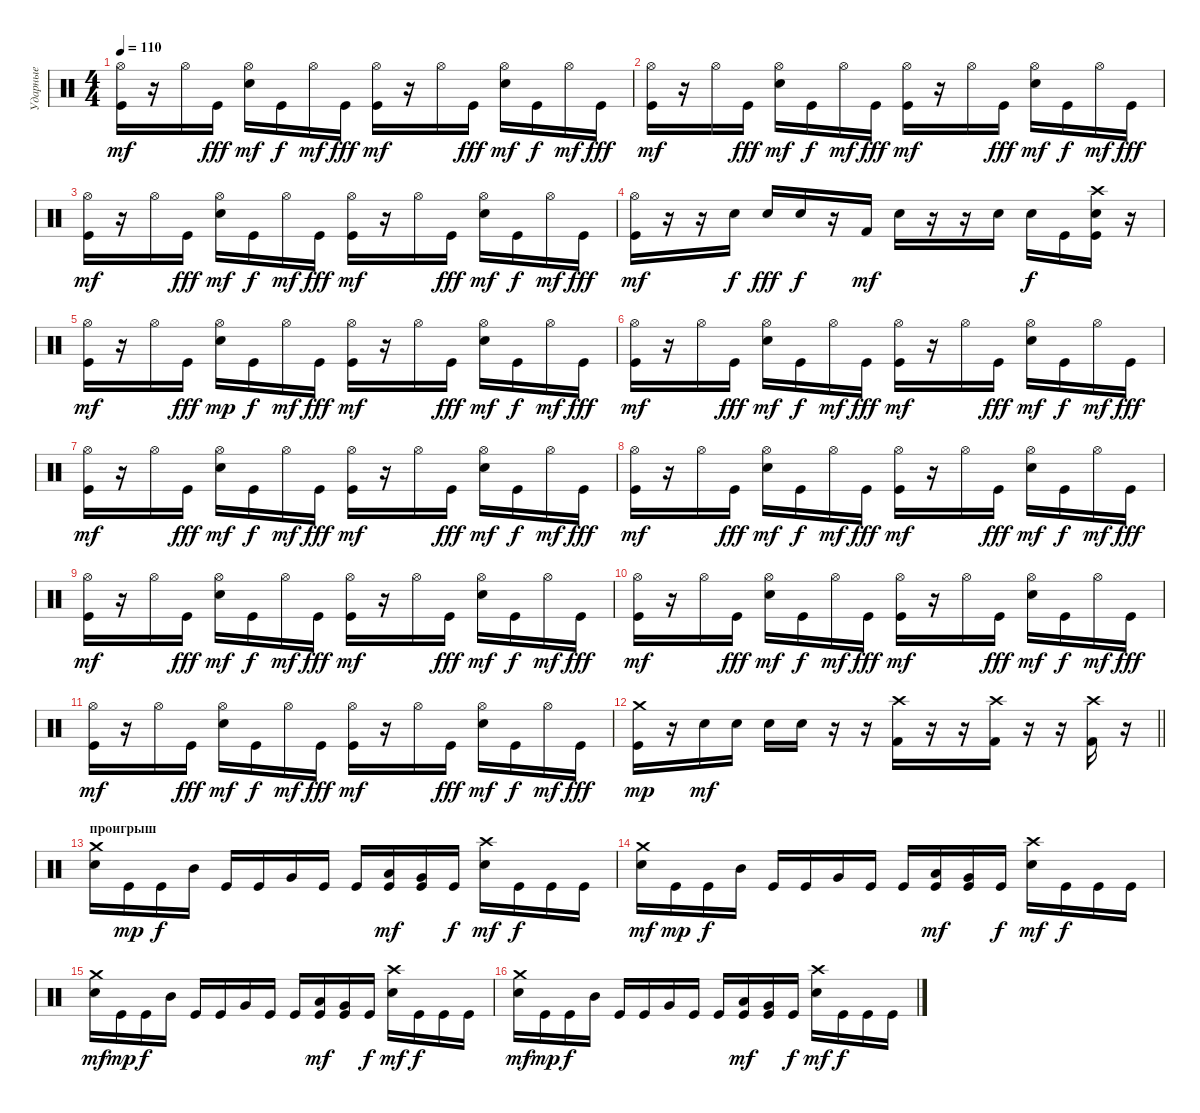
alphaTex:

\track ("Ударные" "Ударные") {instrument percussion}
\staff {score}
\articulation defaults
\ts (4 4)
\tempo 110
\clef neutral
\ks c
("Kick (hit)" "Hi-Hat (open)").16{dy mf} r.16 "Hi-Hat (open)".16 "Kick (hit)".16{dy fff} ("Electric Snare (hit)" "Hi-Hat (open)").16{dy mf} "Kick (hit)".16{dy f} "Hi-Hat (open)".16{dy mf} "Kick (hit)".16{dy fff} ("Kick (hit)" "Hi-Hat (open)").16{dy mf} r.16 "Hi-Hat (open)".16 "Kick (hit)".16{dy fff} ("Electric Snare (hit)" "Hi-Hat (open)").16{dy mf} "Kick (hit)".16{dy f} "Hi-Hat (open)".16{dy mf} "Kick (hit)".16{dy fff} |
("Kick (hit)" "Hi-Hat (open)").16{dy mf} r.16 "Hi-Hat (open)".16 "Kick (hit)".16{dy fff} ("Electric Snare (hit)" "Hi-Hat (open)").16{dy mf} "Kick (hit)".16{dy f} "Hi-Hat (open)".16{dy mf} "Kick (hit)".16{dy fff} ("Kick (hit)" "Hi-Hat (open)").16{dy mf} r.16 "Hi-Hat (open)".16 "Kick (hit)".16{dy fff} ("Electric Snare (hit)" "Hi-Hat (open)").16{dy mf} "Kick (hit)".16{dy f} "Hi-Hat (open)".16{dy mf} "Kick (hit)".16{dy fff} |
("Kick (hit)" "Hi-Hat (open)").16{dy mf} r.16 "Hi-Hat (open)".16 "Kick (hit)".16{dy fff} ("Electric Snare (hit)" "Hi-Hat (open)").16{dy mf} "Kick (hit)".16{dy f} "Hi-Hat (open)".16{dy mf} "Kick (hit)".16{dy fff} ("Kick (hit)" "Hi-Hat (open)").16{dy mf} r.16 "Hi-Hat (open)".16 "Kick (hit)".16{dy fff} ("Electric Snare (hit)" "Hi-Hat (open)").16{dy mf} "Kick (hit)".16{dy f} "Hi-Hat (open)".16{dy mf} "Kick (hit)".16{dy fff} |
("Kick (hit)" "Hi-Hat (open)").16{dy mf} r.16 r.16 "Electric Snare (hit)".16{dy f} "Electric Snare (hit)".16{dy fff} "Electric Snare (hit)".16{dy f} r.16 "Kick (hit) 2".16{dy mf} "Electric Snare (hit)".16 r.16 r.16 "Electric Snare (hit)".16 "Electric Snare (hit)".16{dy f} "Kick (hit)".16 ("Kick (hit)" "Electric Snare (hit)" "Crash high (hit)").16 r.16 |
("Kick (hit)" "Hi-Hat (open)").16{dy mf} r.16 "Hi-Hat (open)".16 "Kick (hit)".16{dy fff} ("Electric Snare (hit)" "Hi-Hat (open)").16{dy mp} "Kick (hit)".16{dy f} "Hi-Hat (open)".16{dy mf} "Kick (hit)".16{dy fff} ("Kick (hit)" "Hi-Hat (open)").16{dy mf} r.16 "Hi-Hat (open)".16 "Kick (hit)".16{dy fff} ("Electric Snare (hit)" "Hi-Hat (open)").16{dy mf} "Kick (hit)".16{dy f} "Hi-Hat (open)".16{dy mf} "Kick (hit)".16{dy fff} |
("Kick (hit)" "Hi-Hat (open)").16{dy mf} r.16 "Hi-Hat (open)".16 "Kick (hit)".16{dy fff} ("Electric Snare (hit)" "Hi-Hat (open)").16{dy mf} "Kick (hit)".16{dy f} "Hi-Hat (open)".16{dy mf} "Kick (hit)".16{dy fff} ("Kick (hit)" "Hi-Hat (open)").16{dy mf} r.16 "Hi-Hat (open)".16 "Kick (hit)".16{dy fff} ("Electric Snare (hit)" "Hi-Hat (open)").16{dy mf} "Kick (hit)".16{dy f} "Hi-Hat (open)".16{dy mf} "Kick (hit)".16{dy fff} |
("Kick (hit)" "Hi-Hat (open)").16{dy mf} r.16 "Hi-Hat (open)".16 "Kick (hit)".16{dy fff} ("Electric Snare (hit)" "Hi-Hat (open)").16{dy mf} "Kick (hit)".16{dy f} "Hi-Hat (open)".16{dy mf} "Kick (hit)".16{dy fff} ("Kick (hit)" "Hi-Hat (open)").16{dy mf} r.16 "Hi-Hat (open)".16 "Kick (hit)".16{dy fff} ("Electric Snare (hit)" "Hi-Hat (open)").16{dy mf} "Kick (hit)".16{dy f} "Hi-Hat (open)".16{dy mf} "Kick (hit)".16{dy fff} |
("Kick (hit)" "Hi-Hat (open)").16{dy mf} r.16 "Hi-Hat (open)".16 "Kick (hit)".16{dy fff} ("Electric Snare (hit)" "Hi-Hat (open)").16{dy mf} "Kick (hit)".16{dy f} "Hi-Hat (open)".16{dy mf} "Kick (hit)".16{dy fff} ("Kick (hit)" "Hi-Hat (open)").16{dy mf} r.16 "Hi-Hat (open)".16 "Kick (hit)".16{dy fff} ("Electric Snare (hit)" "Hi-Hat (open)").16{dy mf} "Kick (hit)".16{dy f} "Hi-Hat (open)".16{dy mf} "Kick (hit)".16{dy fff} |
("Kick (hit)" "Hi-Hat (open)").16{dy mf} r.16 "Hi-Hat (open)".16 "Kick (hit)".16{dy fff} ("Electric Snare (hit)" "Hi-Hat (open)").16{dy mf} "Kick (hit)".16{dy f} "Hi-Hat (open)".16{dy mf} "Kick (hit)".16{dy fff} ("Kick (hit)" "Hi-Hat (open)").16{dy mf} r.16 "Hi-Hat (open)".16 "Kick (hit)".16{dy fff} ("Electric Snare (hit)" "Hi-Hat (open)").16{dy mf} "Kick (hit)".16{dy f} "Hi-Hat (open)".16{dy mf} "Kick (hit)".16{dy fff} |
("Kick (hit)" "Hi-Hat (open)").16{dy mf} r.16 "Hi-Hat (open)".16 "Kick (hit)".16{dy fff} ("Electric Snare (hit)" "Hi-Hat (open)").16{dy mf} "Kick (hit)".16{dy f} "Hi-Hat (open)".16{dy mf} "Kick (hit)".16{dy fff} ("Kick (hit)" "Hi-Hat (open)").16{dy mf} r.16 "Hi-Hat (open)".16 "Kick (hit)".16{dy fff} ("Electric Snare (hit)" "Hi-Hat (open)").16{dy mf} "Kick (hit)".16{dy f} "Hi-Hat (open)".16{dy mf} "Kick (hit)".16{dy fff} |
("Kick (hit)" "Hi-Hat (open)").16{dy mf} r.16 "Hi-Hat (open)".16 "Kick (hit)".16{dy fff} ("Electric Snare (hit)" "Hi-Hat (open)").16{dy mf} "Kick (hit)".16{dy f} "Hi-Hat (open)".16{dy mf} "Kick (hit)".16{dy fff} ("Kick (hit)" "Hi-Hat (open)").16{dy mf} r.16 "Hi-Hat (open)".16 "Kick (hit)".16{dy fff} ("Electric Snare (hit)" "Hi-Hat (open)").16{dy mf} "Kick (hit)".16{dy f} "Hi-Hat (open)".16{dy mf} "Kick (hit)".16{dy fff} |
\barLineRight lightlight
("Kick (hit)" "Crash medium (hit)").16{dy mp} r.16 "Electric Snare (hit)".16{dy mf} "Electric Snare (hit)".16 "Electric Snare (hit)".16 "Electric Snare (hit)".16 r.16 r.16 ("Kick (hit) 2" "Crash high (hit)").16 r.16 r.16 ("Kick (hit) 2" "Crash high (hit)").16 r.16 r.16 ("Kick (hit) 2" "Crash high (hit)").16 r.16 |
\section ("" "проигрыш")
("Electric Snare (hit)" "Crash medium (hit)").16 "Kick (hit)".16{dy mp} "Kick (hit)".16{dy f} "Mid Tom (hit)".16 "Kick (hit)".16 "Kick (hit)".16 "Very Low Tom (hit)".16 "Kick (hit)".16 "Kick (hit)".16 ("Low Tom (hit)" "Kick (hit)").16{dy mf} ("Very Low Tom (hit)" "Kick (hit)").16 "Kick (hit)".16{dy f} ("Electric Snare (hit)" "Crash high (hit)").16{dy mf} "Kick (hit)".16{dy f} "Kick (hit)".16 "Kick (hit)".16 |
("Electric Snare (hit)" "Crash medium (hit)").16{dy mf} "Kick (hit)".16{dy mp} "Kick (hit)".16{dy f} "Mid Tom (hit)".16 "Kick (hit)".16 "Kick (hit)".16 "Very Low Tom (hit)".16 "Kick (hit)".16 "Kick (hit)".16 ("Low Tom (hit)" "Kick (hit)").16{dy mf} ("Very Low Tom (hit)" "Kick (hit)").16 "Kick (hit)".16{dy f} ("Electric Snare (hit)" "Crash high (hit)").16{dy mf} "Kick (hit)".16{dy f} "Kick (hit)".16 "Kick (hit)".16 |
("Electric Snare (hit)" "Crash medium (hit)").16{dy mf} "Kick (hit)".16{dy mp} "Kick (hit)".16{dy f} "Mid Tom (hit)".16 "Kick (hit)".16 "Kick (hit)".16 "Very Low Tom (hit)".16 "Kick (hit)".16 "Kick (hit)".16 ("Low Tom (hit)" "Kick (hit)").16{dy mf} ("Very Low Tom (hit)" "Kick (hit)").16 "Kick (hit)".16{dy f} ("Electric Snare (hit)" "Crash high (hit)").16{dy mf} "Kick (hit)".16{dy f} "Kick (hit)".16 "Kick (hit)".16 |
("Electric Snare (hit)" "Crash medium (hit)").16{dy mf} "Kick (hit)".16{dy mp} "Kick (hit)".16{dy f} "Mid Tom (hit)".16 "Kick (hit)".16 "Kick (hit)".16 "Very Low Tom (hit)".16 "Kick (hit)".16 "Kick (hit)".16 ("Low Tom (hit)" "Kick (hit)").16{dy mf} ("Very Low Tom (hit)" "Kick (hit)").16 "Kick (hit)".16{dy f} ("Electric Snare (hit)" "Crash high (hit)").16{dy mf} "Kick (hit)".16{dy f} "Kick (hit)".16 "Kick (hit)".16
